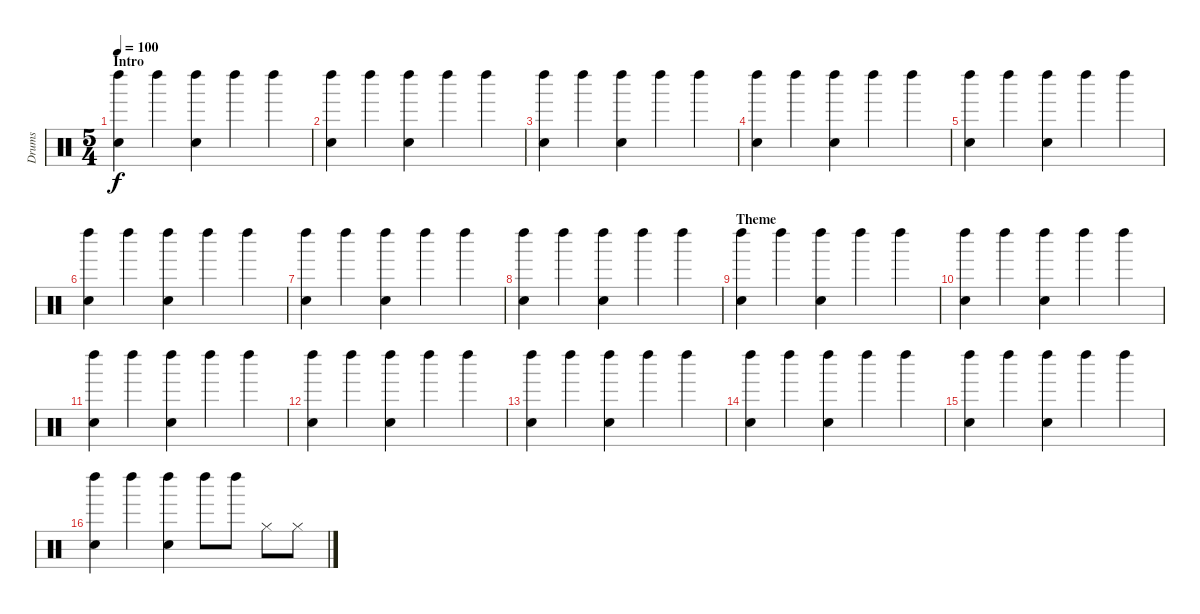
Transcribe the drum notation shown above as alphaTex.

\track ("Drums" "Drums") {instrument percussion}
\staff {score}
\articulation defaults
\ts (5 4)
\section ("" "Intro")
\tempo 100
\clef neutral
\ks c
("Hand Clap (hit)" "Left Maraca (hit)").4{dy f} "Left Maraca (hit)".4 ("Hand Clap (hit)" "Left Maraca (hit)").4 "Left Maraca (hit)".4 "Left Maraca (hit)".4 |
("Hand Clap (hit)" "Left Maraca (hit)").4 "Left Maraca (hit)".4 ("Hand Clap (hit)" "Left Maraca (hit)").4 "Left Maraca (hit)".4 "Left Maraca (hit)".4 |
("Hand Clap (hit)" "Left Maraca (hit)").4 "Left Maraca (hit)".4 ("Hand Clap (hit)" "Left Maraca (hit)").4 "Left Maraca (hit)".4 "Left Maraca (hit)".4 |
("Hand Clap (hit)" "Left Maraca (hit)").4 "Left Maraca (hit)".4 ("Hand Clap (hit)" "Left Maraca (hit)").4 "Left Maraca (hit)".4 "Left Maraca (hit)".4 |
("Hand Clap (hit)" "Left Maraca (hit)").4 "Left Maraca (hit)".4 ("Hand Clap (hit)" "Left Maraca (hit)").4 "Left Maraca (hit)".4 "Left Maraca (hit)".4 |
("Hand Clap (hit)" "Left Maraca (hit)").4 "Left Maraca (hit)".4 ("Hand Clap (hit)" "Left Maraca (hit)").4 "Left Maraca (hit)".4 "Left Maraca (hit)".4 |
("Hand Clap (hit)" "Left Maraca (hit)").4 "Left Maraca (hit)".4 ("Hand Clap (hit)" "Left Maraca (hit)").4 "Left Maraca (hit)".4 "Left Maraca (hit)".4 |
("Hand Clap (hit)" "Left Maraca (hit)").4 "Left Maraca (hit)".4 ("Hand Clap (hit)" "Left Maraca (hit)").4 "Left Maraca (hit)".4 "Left Maraca (hit)".4 |
\section ("" "Theme")
("Hand Clap (hit)" "Left Maraca (hit)").4 "Left Maraca (hit)".4 ("Hand Clap (hit)" "Left Maraca (hit)").4 "Left Maraca (hit)".4 "Left Maraca (hit)".4 |
("Hand Clap (hit)" "Left Maraca (hit)").4 "Left Maraca (hit)".4 ("Hand Clap (hit)" "Left Maraca (hit)").4 "Left Maraca (hit)".4 "Left Maraca (hit)".4 |
("Hand Clap (hit)" "Left Maraca (hit)").4 "Left Maraca (hit)".4 ("Hand Clap (hit)" "Left Maraca (hit)").4 "Left Maraca (hit)".4 "Left Maraca (hit)".4 |
("Hand Clap (hit)" "Left Maraca (hit)").4 "Left Maraca (hit)".4 ("Hand Clap (hit)" "Left Maraca (hit)").4 "Left Maraca (hit)".4 "Left Maraca (hit)".4 |
("Hand Clap (hit)" "Left Maraca (hit)").4 "Left Maraca (hit)".4 ("Hand Clap (hit)" "Left Maraca (hit)").4 "Left Maraca (hit)".4 "Left Maraca (hit)".4 |
("Hand Clap (hit)" "Left Maraca (hit)").4 "Left Maraca (hit)".4 ("Hand Clap (hit)" "Left Maraca (hit)").4 "Left Maraca (hit)".4 "Left Maraca (hit)".4 |
("Hand Clap (hit)" "Left Maraca (hit)").4 "Left Maraca (hit)".4 ("Hand Clap (hit)" "Left Maraca (hit)").4 "Left Maraca (hit)".4 "Left Maraca (hit)".4 |
("Hand Clap (hit)" "Left Maraca (hit)").4 "Left Maraca (hit)".4 ("Hand Clap (hit)" "Left Maraca (hit)").4 "Left Maraca (hit)".8 "Left Maraca (hit)".8 "Hi-Hat (closed)".8 "Hi-Hat (closed)".8
